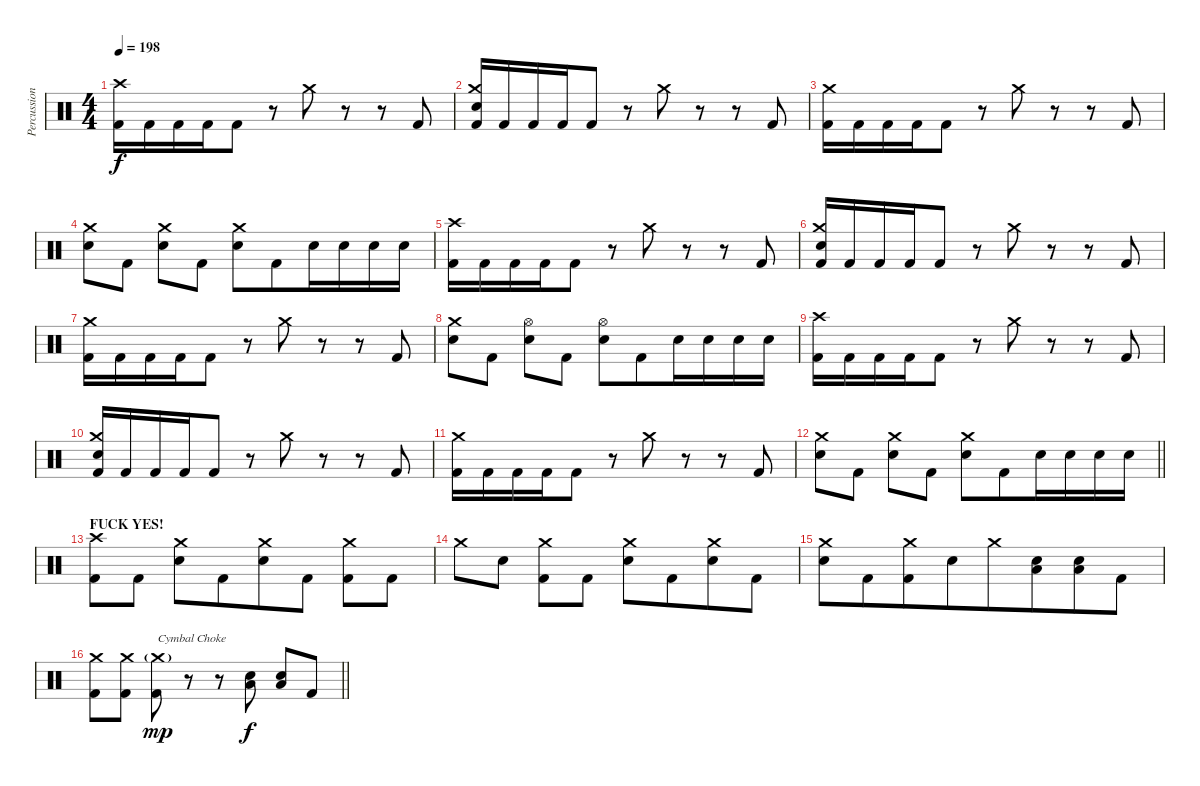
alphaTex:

\track ("Percussion" "Percussion") {instrument percussion}
\staff {score}
\articulation defaults
\ts (4 4)
\tempo 198
\clef neutral
\ks c
("Crash high (hit)" "Kick (hit) 2").16{dy f beam merge} "Kick (hit) 2".16{beam merge} "Kick (hit) 2".16 "Kick (hit) 2".16{beam merge} "Kick (hit) 2".8 r.8{beam merge} "Crash medium (hit)".8 r.8 r.8 "Kick (hit) 2".8 |
("Crash medium (hit)" "Electric Snare (hit)" "Kick (hit) 2").16{beam merge} "Kick (hit) 2".16{beam merge} "Kick (hit) 2".16 "Kick (hit) 2".16{beam merge} "Kick (hit) 2".8 r.8{beam merge} "Crash medium (hit)".8 r.8 r.8 "Kick (hit) 2".8 |
("Crash medium (hit)" "Kick (hit) 2").16{beam merge} "Kick (hit) 2".16{beam merge} "Kick (hit) 2".16 "Kick (hit) 2".16{beam merge} "Kick (hit) 2".8 r.8{beam merge} "Crash medium (hit)".8 r.8 r.8 "Kick (hit) 2".8 |
("Crash medium (hit)" "Electric Snare (hit)").8{beam merge} "Kick (hit) 2".8 ("Crash medium (hit)" "Electric Snare (hit)").8 "Kick (hit) 2".8 ("Crash medium (hit)" "Electric Snare (hit)").8 "Kick (hit) 2".8{beam merge} "Electric Snare (hit)".16 "Electric Snare (hit)".16{beam merge} "Electric Snare (hit)".16 "Electric Snare (hit)".16 |
("Crash high (hit)" "Kick (hit) 2").16{beam merge} "Kick (hit) 2".16{beam merge} "Kick (hit) 2".16 "Kick (hit) 2".16{beam merge} "Kick (hit) 2".8 r.8{beam merge} "Crash medium (hit)".8 r.8 r.8 "Kick (hit) 2".8 |
("Crash medium (hit)" "Electric Snare (hit)" "Kick (hit) 2").16{beam merge} "Kick (hit) 2".16{beam merge} "Kick (hit) 2".16 "Kick (hit) 2".16{beam merge} "Kick (hit) 2".8 r.8{beam merge} "Crash medium (hit)".8 r.8 r.8 "Kick (hit) 2".8 |
("Crash medium (hit)" "Kick (hit) 2").16{beam merge} "Kick (hit) 2".16{beam merge} "Kick (hit) 2".16 "Kick (hit) 2".16{beam merge} "Kick (hit) 2".8 r.8{beam merge} "Crash medium (hit)".8 r.8 r.8 "Kick (hit) 2".8 |
("Crash medium (hit)" "Electric Snare (hit)").8{beam merge} "Kick (hit) 2".8 ("Hi-Hat (open)" "Electric Snare (hit)").8 "Kick (hit) 2".8 ("Hi-Hat (open)" "Electric Snare (hit)").8 "Kick (hit) 2".8{beam merge} "Electric Snare (hit)".16 "Electric Snare (hit)".16{beam merge} "Electric Snare (hit)".16 "Electric Snare (hit)".16 |
("Crash high (hit)" "Kick (hit) 2").16{beam merge} "Kick (hit) 2".16{beam merge} "Kick (hit) 2".16 "Kick (hit) 2".16{beam merge} "Kick (hit) 2".8 r.8{beam merge} "Crash medium (hit)".8 r.8 r.8 "Kick (hit) 2".8 |
("Crash medium (hit)" "Electric Snare (hit)" "Kick (hit) 2").16{beam merge} "Kick (hit) 2".16{beam merge} "Kick (hit) 2".16 "Kick (hit) 2".16{beam merge} "Kick (hit) 2".8 r.8{beam merge} "Crash medium (hit)".8 r.8 r.8 "Kick (hit) 2".8 |
("Crash medium (hit)" "Kick (hit) 2").16{beam merge} "Kick (hit) 2".16{beam merge} "Kick (hit) 2".16 "Kick (hit) 2".16{beam merge} "Kick (hit) 2".8 r.8{beam merge} "Crash medium (hit)".8 r.8 r.8 "Kick (hit) 2".8 |
\barLineRight lightlight
("Crash medium (hit)" "Electric Snare (hit)").8{beam merge} "Kick (hit) 2".8 ("Crash medium (hit)" "Electric Snare (hit)").8 "Kick (hit) 2".8 ("Crash medium (hit)" "Electric Snare (hit)").8 "Kick (hit) 2".8{beam merge} "Electric Snare (hit)".16 "Electric Snare (hit)".16{beam merge} "Electric Snare (hit)".16 "Electric Snare (hit)".16 |
\section ("" "FUCK YES!")
("Crash high (hit)" "Kick (hit) 2").8{beam merge} "Kick (hit) 2".8 ("Crash medium (hit)" "Electric Snare (hit)").8 "Kick (hit) 2".8{beam merge} ("Crash medium (hit)" "Electric Snare (hit)").8 "Kick (hit) 2".8 ("Crash medium (hit)" "Kick (hit) 2").8 "Kick (hit) 2".8 |
"Crash medium (hit)".8 "Electric Snare (hit)".8 ("Crash medium (hit)" "Kick (hit) 2").8 "Kick (hit) 2".8 ("Crash medium (hit)" "Electric Snare (hit)").8 "Kick (hit) 2".8{beam merge} ("Crash medium (hit)" "Electric Snare (hit)").8{beam merge} "Kick (hit) 2".8 |
("Crash medium (hit)" "Electric Snare (hit)").8{beam merge} "Kick (hit) 2".8{beam merge} ("Crash medium (hit)" "Kick (hit) 2").8{beam merge} "Electric Snare (hit)".8{beam merge} "Crash medium (hit)".8 ("Electric Snare (hit)" "Low Floor Tom (hit)").8{beam merge} ("Electric Snare (hit)" "Low Floor Tom (hit)").8{beam merge} "Kick (hit) 2".8 |
\barLineRight lightlight
("Crash medium (hit)" "Kick (hit) 2").8 ("Crash medium (hit)" "Kick (hit) 2").8 ("Crash medium (hit)"{g} "Kick (hit) 2").8{txt "Cymbal Choke" dy mp} r.8{volume 0} r.8{beam merge} ("Electric Snare (hit)" "Low Floor Tom (hit)").8{dy f volume 15} ("Electric Snare (hit)" "Low Floor Tom (hit)").8 "Kick (hit) 2".8
